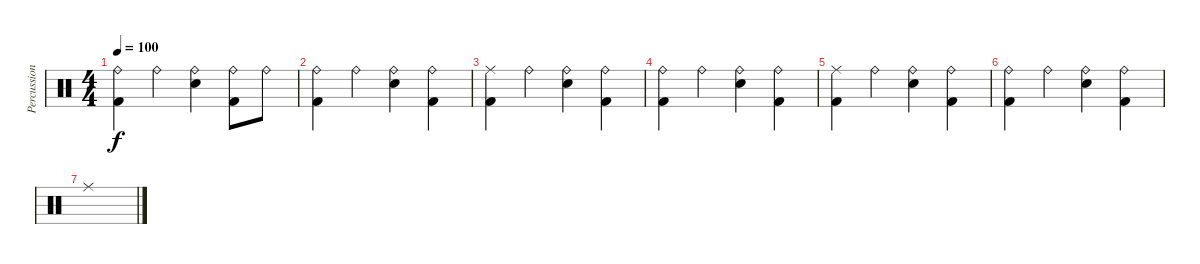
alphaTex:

\track ("Percussion" "Percussion") {instrument percussion}
\staff {score}
\articulation defaults
\ts (4 4)
\tempo 100
\clef neutral
\ks c
("Ride (bell)" "Kick (hit) 2").4{dy f} "Ride (bell)".4 ("Ride (bell)" "Snare (hit) 2").4 ("Ride (bell)" "Kick (hit) 2").8 "Ride (bell)".8 |
("Ride (bell)" "Kick (hit) 2").4 "Ride (bell)".4 ("Ride (bell)" "Snare (hit) 2").4 ("Ride (bell)" "Kick (hit) 2").4 |
("Ride (middle)" "Kick (hit) 2").4 "Ride (bell)".4 ("Ride (bell)" "Snare (hit) 2").4 ("Ride (bell)" "Kick (hit) 2").4 |
("Ride (bell)" "Kick (hit) 2").4 "Ride (bell)".4 ("Ride (bell)" "Snare (hit) 2").4 ("Ride (bell)" "Kick (hit) 2").4 |
("Ride (middle)" "Kick (hit) 2").4 "Ride (bell)".4 ("Ride (bell)" "Snare (hit) 2").4 ("Ride (bell)" "Kick (hit) 2").4 |
("Ride (bell)" "Kick (hit) 2").4 "Ride (bell)".4 ("Ride (bell)" "Snare (hit) 2").4 ("Ride (bell)" "Kick (hit) 2").4 |
"Ride (middle)".1
